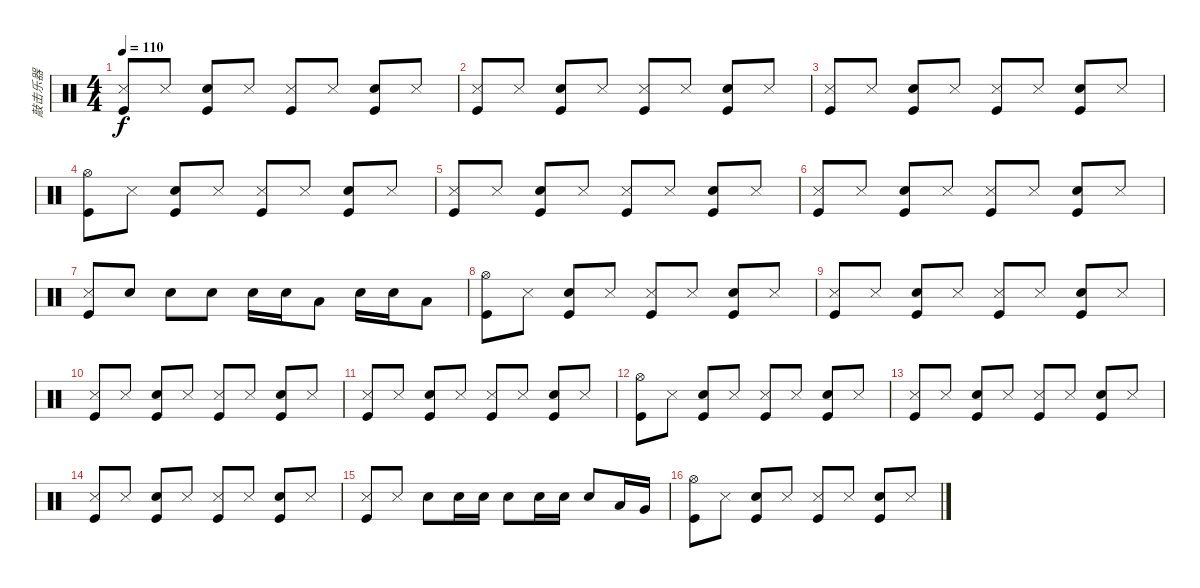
\track ("敲击乐器" "敲击乐器") {instrument percussion}
\staff {score}
\articulation defaults
\ts (4 4)
\tempo 110
\clef neutral
\ks c
("Snare (side stick) 3" "Kick (hit)").8{dy f} "Snare (side stick) 3".8 ("Snare (hit) 2" "Kick (hit)").8 "Snare (side stick) 3".8 ("Snare (side stick) 3" "Kick (hit)").8 "Snare (side stick) 3".8 ("Snare (hit) 2" "Kick (hit)").8 "Snare (side stick) 3".8 |
("Snare (side stick) 3" "Kick (hit)").8 "Snare (side stick) 3".8 ("Snare (hit) 2" "Kick (hit)").8 "Snare (side stick) 3".8 ("Snare (side stick) 3" "Kick (hit)").8 "Snare (side stick) 3".8 ("Snare (hit) 2" "Kick (hit)").8 "Snare (side stick) 3".8 |
("Snare (side stick) 3" "Kick (hit)").8 "Snare (side stick) 3".8 ("Snare (hit) 2" "Kick (hit)").8 "Snare (side stick) 3".8 ("Snare (side stick) 3" "Kick (hit)").8 "Snare (side stick) 3".8 ("Snare (hit) 2" "Kick (hit)").8 "Snare (side stick) 3".8 |
("Hi-Hat (open)" "Kick (hit)").8 "Snare (side stick) 3".8 ("Snare (hit) 2" "Kick (hit)").8 "Snare (side stick) 3".8 ("Snare (side stick) 3" "Kick (hit)").8 "Snare (side stick) 3".8 ("Snare (hit) 2" "Kick (hit)").8 "Snare (side stick) 3".8 |
("Snare (side stick) 3" "Kick (hit)").8 "Snare (side stick) 3".8 ("Snare (hit) 2" "Kick (hit)").8 "Snare (side stick) 3".8 ("Snare (side stick) 3" "Kick (hit)").8 "Snare (side stick) 3".8 ("Snare (hit) 2" "Kick (hit)").8 "Snare (side stick) 3".8 |
("Snare (side stick) 3" "Kick (hit)").8 "Snare (side stick) 3".8 ("Snare (hit) 2" "Kick (hit)").8 "Snare (side stick) 3".8 ("Snare (side stick) 3" "Kick (hit)").8 "Snare (side stick) 3".8 ("Snare (hit) 2" "Kick (hit)").8 "Snare (side stick) 3".8 |
("Snare (side stick) 3" "Kick (hit)").8 "Snare (hit) 2".8 "Snare (hit) 2".8 "Snare (hit) 2".8 "Snare (hit) 2".16 "Snare (hit) 2".16 "Low Tom (hit)".8 "Snare (hit) 2".16 "Snare (hit) 2".16 "Low Tom (hit)".8 |
("Hi-Hat (open)" "Kick (hit)").8 "Snare (side stick) 3".8 ("Snare (hit) 2" "Kick (hit)").8 "Snare (side stick) 3".8 ("Snare (side stick) 3" "Kick (hit)").8 "Snare (side stick) 3".8 ("Snare (hit) 2" "Kick (hit)").8 "Snare (side stick) 3".8 |
("Snare (side stick) 3" "Kick (hit)").8 "Snare (side stick) 3".8 ("Snare (hit) 2" "Kick (hit)").8 "Snare (side stick) 3".8 ("Snare (side stick) 3" "Kick (hit)").8 "Snare (side stick) 3".8 ("Snare (hit) 2" "Kick (hit)").8 "Snare (side stick) 3".8 |
("Snare (side stick) 3" "Kick (hit)").8 "Snare (side stick) 3".8 ("Snare (hit) 2" "Kick (hit)").8 "Snare (side stick) 3".8 ("Snare (side stick) 3" "Kick (hit)").8 "Snare (side stick) 3".8 ("Snare (hit) 2" "Kick (hit)").8 "Snare (side stick) 3".8 |
("Snare (side stick) 3" "Kick (hit)").8 "Snare (side stick) 3".8 ("Snare (hit) 2" "Kick (hit)").8 "Snare (side stick) 3".8 ("Snare (side stick) 3" "Kick (hit)").8 "Snare (side stick) 3".8 ("Snare (hit) 2" "Kick (hit)").8 "Snare (side stick) 3".8 |
("Hi-Hat (open)" "Kick (hit)").8 "Snare (side stick) 3".8 ("Snare (hit) 2" "Kick (hit)").8 "Snare (side stick) 3".8 ("Snare (side stick) 3" "Kick (hit)").8 "Snare (side stick) 3".8 ("Snare (hit) 2" "Kick (hit)").8 "Snare (side stick) 3".8 |
("Snare (side stick) 3" "Kick (hit)").8 "Snare (side stick) 3".8 ("Snare (hit) 2" "Kick (hit)").8 "Snare (side stick) 3".8 ("Snare (side stick) 3" "Kick (hit)").8 "Snare (side stick) 3".8 ("Snare (hit) 2" "Kick (hit)").8 "Snare (side stick) 3".8 |
("Snare (side stick) 3" "Kick (hit)").8 "Snare (side stick) 3".8 ("Snare (hit) 2" "Kick (hit)").8 "Snare (side stick) 3".8 ("Snare (side stick) 3" "Kick (hit)").8 "Snare (side stick) 3".8 ("Snare (hit) 2" "Kick (hit)").8 "Snare (side stick) 3".8 |
("Snare (side stick) 3" "Kick (hit)").8 "Snare (side stick) 3".8 "Snare (hit) 2".8 "Snare (hit) 2".16 "Snare (hit) 2".16 "Snare (hit) 2".8 "Snare (hit) 2".16 "Snare (hit) 2".16 "Snare (hit) 2".8 "Low Tom (hit)".16 "Very Low Tom (hit)".16 |
("Hi-Hat (open)" "Kick (hit)").8 "Snare (side stick) 3".8 ("Snare (hit) 2" "Kick (hit)").8 "Snare (side stick) 3".8 ("Snare (side stick) 3" "Kick (hit)").8 "Snare (side stick) 3".8 ("Snare (hit) 2" "Kick (hit)").8 "Snare (side stick) 3".8
